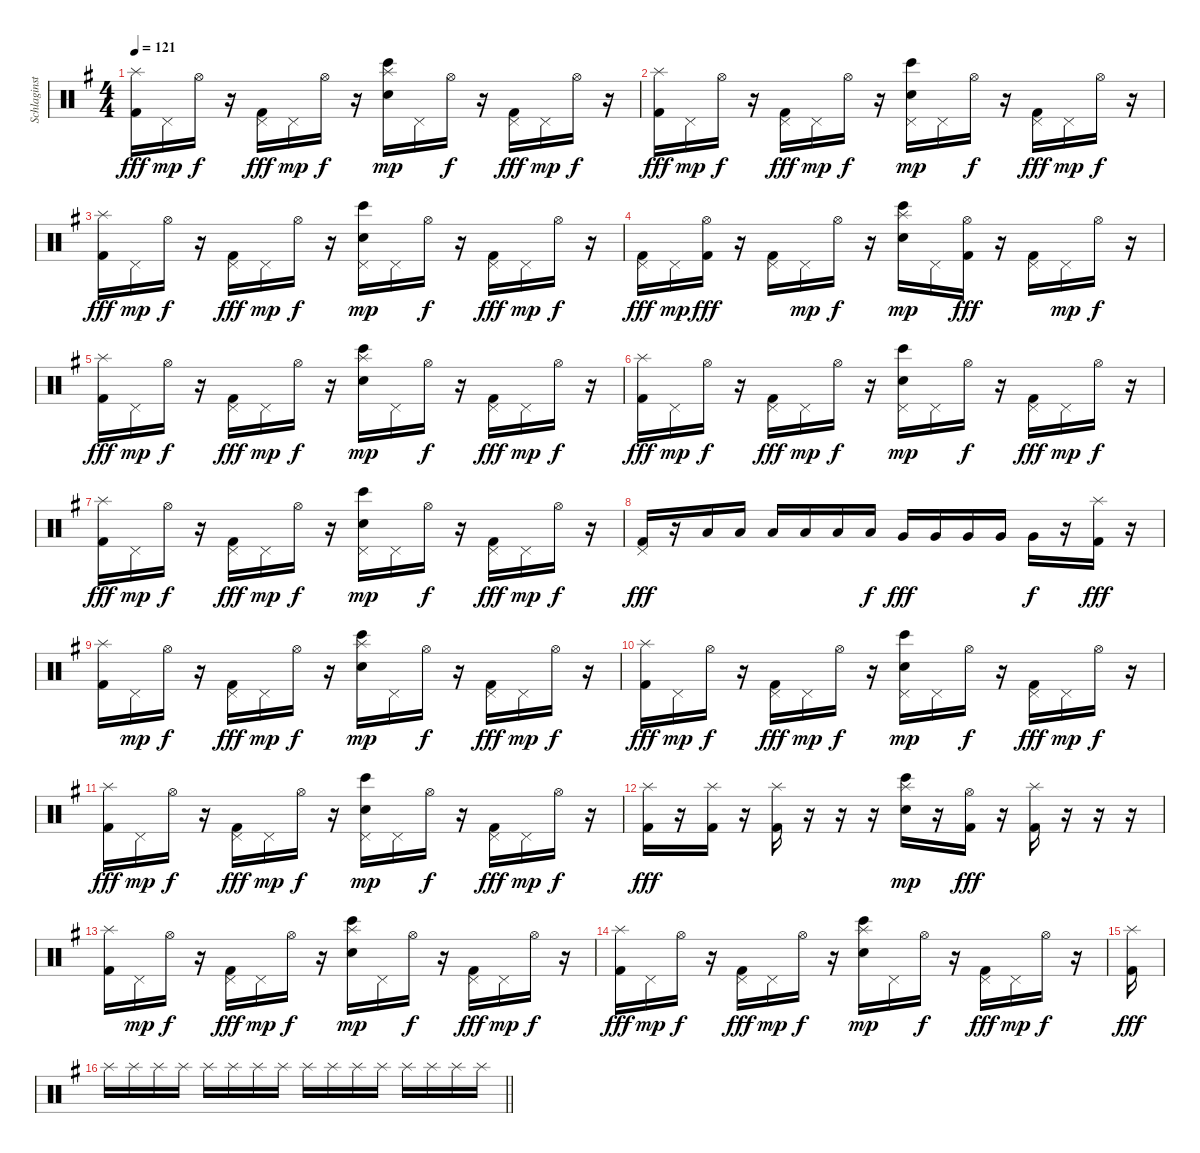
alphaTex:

\track ("Schlaginstrumente - Auswahl" "Schlaginst") {instrument percussion}
\staff {score}
\articulation defaults
\ts (4 4)
\tempo 121
\clef neutral
\ks g
("Splash (hit)" "Kick (hit) 2").16{dy fff} "Pedal Hi-Hat (hit)".16{dy mp} "Hi-Hat (open)".16{dy f} r.16 ("Pedal Hi-Hat (hit)" "Kick (hit) 2").16{dy fff} "Pedal Hi-Hat (hit)".16{dy mp} "Hi-Hat (open)".16{dy f} r.16 ("Bongo High (hit)" "Splash (hit)" "Electric Snare (hit)").16{dy mp} "Pedal Hi-Hat (hit)".16 "Hi-Hat (open)".16{dy f} r.16 ("Pedal Hi-Hat (hit)" "Kick (hit) 2").16{dy fff} "Pedal Hi-Hat (hit)".16{dy mp} "Hi-Hat (open)".16{dy f} r.16 |
("Splash (hit)" "Kick (hit) 2").16{dy fff} "Pedal Hi-Hat (hit)".16{dy mp} "Hi-Hat (open)".16{dy f} r.16 ("Pedal Hi-Hat (hit)" "Kick (hit) 2").16{dy fff} "Pedal Hi-Hat (hit)".16{dy mp} "Hi-Hat (open)".16{dy f} r.16 ("Bongo High (hit)" "Pedal Hi-Hat (hit)" "Electric Snare (hit)").16{dy mp} "Pedal Hi-Hat (hit)".16 "Hi-Hat (open)".16{dy f} r.16 ("Pedal Hi-Hat (hit)" "Kick (hit) 2").16{dy fff} "Pedal Hi-Hat (hit)".16{dy mp} "Hi-Hat (open)".16{dy f} r.16 |
("Splash (hit)" "Kick (hit) 2").16{dy fff} "Pedal Hi-Hat (hit)".16{dy mp} "Hi-Hat (open)".16{dy f} r.16 ("Pedal Hi-Hat (hit)" "Kick (hit) 2").16{dy fff} "Pedal Hi-Hat (hit)".16{dy mp} "Hi-Hat (open)".16{dy f} r.16 ("Bongo High (hit)" "Pedal Hi-Hat (hit)" "Electric Snare (hit)").16{dy mp} "Pedal Hi-Hat (hit)".16 "Hi-Hat (open)".16{dy f} r.16 ("Pedal Hi-Hat (hit)" "Kick (hit) 2").16{dy fff} "Pedal Hi-Hat (hit)".16{dy mp} "Hi-Hat (open)".16{dy f} r.16 |
("Pedal Hi-Hat (hit)" "Kick (hit) 2").16{dy fff} "Pedal Hi-Hat (hit)".16{dy mp} ("Hi-Hat (open)" "Kick (hit) 2").16{dy fff} r.16 ("Pedal Hi-Hat (hit)" "Kick (hit) 2").16 "Pedal Hi-Hat (hit)".16{dy mp} "Hi-Hat (open)".16{dy f} r.16 ("Bongo High (hit)" "Splash (hit)" "Electric Snare (hit)").16{dy mp} "Pedal Hi-Hat (hit)".16 ("Hi-Hat (open)" "Kick (hit) 2").16{dy fff} r.16 ("Pedal Hi-Hat (hit)" "Kick (hit) 2").16 "Pedal Hi-Hat (hit)".16{dy mp} "Hi-Hat (open)".16{dy f} r.16 |
("Splash (hit)" "Kick (hit) 2").16{dy fff} "Pedal Hi-Hat (hit)".16{dy mp} "Hi-Hat (open)".16{dy f} r.16 ("Pedal Hi-Hat (hit)" "Kick (hit) 2").16{dy fff} "Pedal Hi-Hat (hit)".16{dy mp} "Hi-Hat (open)".16{dy f} r.16 ("Bongo High (hit)" "Splash (hit)" "Electric Snare (hit)").16{dy mp} "Pedal Hi-Hat (hit)".16 "Hi-Hat (open)".16{dy f} r.16 ("Pedal Hi-Hat (hit)" "Kick (hit) 2").16{dy fff} "Pedal Hi-Hat (hit)".16{dy mp} "Hi-Hat (open)".16{dy f} r.16 |
("Splash (hit)" "Kick (hit) 2").16{dy fff} "Pedal Hi-Hat (hit)".16{dy mp} "Hi-Hat (open)".16{dy f} r.16 ("Pedal Hi-Hat (hit)" "Kick (hit) 2").16{dy fff} "Pedal Hi-Hat (hit)".16{dy mp} "Hi-Hat (open)".16{dy f} r.16 ("Bongo High (hit)" "Pedal Hi-Hat (hit)" "Electric Snare (hit)").16{dy mp} "Pedal Hi-Hat (hit)".16 "Hi-Hat (open)".16{dy f} r.16 ("Pedal Hi-Hat (hit)" "Kick (hit) 2").16{dy fff} "Pedal Hi-Hat (hit)".16{dy mp} "Hi-Hat (open)".16{dy f} r.16 |
("Splash (hit)" "Kick (hit) 2").16{dy fff} "Pedal Hi-Hat (hit)".16{dy mp} "Hi-Hat (open)".16{dy f} r.16 ("Pedal Hi-Hat (hit)" "Kick (hit) 2").16{dy fff} "Pedal Hi-Hat (hit)".16{dy mp} "Hi-Hat (open)".16{dy f} r.16 ("Bongo High (hit)" "Pedal Hi-Hat (hit)" "Electric Snare (hit)").16{dy mp} "Pedal Hi-Hat (hit)".16 "Hi-Hat (open)".16{dy f} r.16 ("Pedal Hi-Hat (hit)" "Kick (hit) 2").16{dy fff} "Pedal Hi-Hat (hit)".16{dy mp} "Hi-Hat (open)".16{dy f} r.16 |
("Pedal Hi-Hat (hit)" "Kick (hit) 2").16{dy fff} r.16 "Low Tom (hit)".16 "Low Tom (hit)".16 "Low Tom (hit)".16 "Low Tom (hit)".16 "Low Tom (hit)".16 "Low Tom (hit)".16{dy f} "Very Low Tom (hit)".16{dy fff} "Very Low Tom (hit)".16 "Very Low Tom (hit)".16 "Very Low Tom (hit)".16 "Very Low Tom (hit)".16{dy f} r.16 ("Splash (hit)" "Kick (hit) 2").16{dy fff} r.16 |
("Splash (hit)" "Kick (hit) 2").16 "Pedal Hi-Hat (hit)".16{dy mp} "Hi-Hat (open)".16{dy f} r.16 ("Pedal Hi-Hat (hit)" "Kick (hit) 2").16{dy fff} "Pedal Hi-Hat (hit)".16{dy mp} "Hi-Hat (open)".16{dy f} r.16 ("Bongo High (hit)" "Splash (hit)" "Electric Snare (hit)").16{dy mp} "Pedal Hi-Hat (hit)".16 "Hi-Hat (open)".16{dy f} r.16 ("Pedal Hi-Hat (hit)" "Kick (hit) 2").16{dy fff} "Pedal Hi-Hat (hit)".16{dy mp} "Hi-Hat (open)".16{dy f} r.16 |
("Splash (hit)" "Kick (hit) 2").16{dy fff} "Pedal Hi-Hat (hit)".16{dy mp} "Hi-Hat (open)".16{dy f} r.16 ("Pedal Hi-Hat (hit)" "Kick (hit) 2").16{dy fff} "Pedal Hi-Hat (hit)".16{dy mp} "Hi-Hat (open)".16{dy f} r.16 ("Bongo High (hit)" "Pedal Hi-Hat (hit)" "Electric Snare (hit)").16{dy mp} "Pedal Hi-Hat (hit)".16 "Hi-Hat (open)".16{dy f} r.16 ("Pedal Hi-Hat (hit)" "Kick (hit) 2").16{dy fff} "Pedal Hi-Hat (hit)".16{dy mp} "Hi-Hat (open)".16{dy f} r.16 |
("Splash (hit)" "Kick (hit) 2").16{dy fff} "Pedal Hi-Hat (hit)".16{dy mp} "Hi-Hat (open)".16{dy f} r.16 ("Pedal Hi-Hat (hit)" "Kick (hit) 2").16{dy fff} "Pedal Hi-Hat (hit)".16{dy mp} "Hi-Hat (open)".16{dy f} r.16 ("Bongo High (hit)" "Pedal Hi-Hat (hit)" "Electric Snare (hit)").16{dy mp} "Pedal Hi-Hat (hit)".16 "Hi-Hat (open)".16{dy f} r.16 ("Pedal Hi-Hat (hit)" "Kick (hit) 2").16{dy fff} "Pedal Hi-Hat (hit)".16{dy mp} "Hi-Hat (open)".16{dy f} r.16 |
("Splash (hit)" "Kick (hit) 2").16{dy fff} r.16 ("Splash (hit)" "Kick (hit) 2").16 r.16 ("Splash (hit)" "Kick (hit) 2").16 r.16 r.16 r.16 ("Bongo High (hit)" "Splash (hit)" "Electric Snare (hit)").16{dy mp} r.16 ("Hi-Hat (open)" "Kick (hit) 2").16{dy fff} r.16 ("Splash (hit)" "Kick (hit) 2").16 r.16 r.16 r.16 |
("Splash (hit)" "Kick (hit) 2").16 "Pedal Hi-Hat (hit)".16{dy mp} "Hi-Hat (open)".16{dy f} r.16 ("Pedal Hi-Hat (hit)" "Kick (hit) 2").16{dy fff} "Pedal Hi-Hat (hit)".16{dy mp} "Hi-Hat (open)".16{dy f} r.16 ("Bongo High (hit)" "Splash (hit)" "Electric Snare (hit)").16{dy mp} "Pedal Hi-Hat (hit)".16 "Hi-Hat (open)".16{dy f} r.16 ("Pedal Hi-Hat (hit)" "Kick (hit) 2").16{dy fff} "Pedal Hi-Hat (hit)".16{dy mp} "Hi-Hat (open)".16{dy f} r.16 |
("Splash (hit)" "Kick (hit) 2").16{dy fff} "Pedal Hi-Hat (hit)".16{dy mp} "Hi-Hat (open)".16{dy f} r.16 ("Pedal Hi-Hat (hit)" "Kick (hit) 2").16{dy fff} "Pedal Hi-Hat (hit)".16{dy mp} "Hi-Hat (open)".16{dy f} r.16 ("Bongo High (hit)" "Splash (hit)" "Electric Snare (hit)").16{dy mp} "Pedal Hi-Hat (hit)".16 "Hi-Hat (open)".16{dy f} r.16 ("Pedal Hi-Hat (hit)" "Kick (hit) 2").16{dy fff} "Pedal Hi-Hat (hit)".16{dy mp} "Hi-Hat (open)".16{dy f} r.16 |
("Splash (hit)" "Kick (hit) 2").16{dy fff} |
\barLineRight lightlight "Splash (hit)".16 "Splash (hit)".16 "Splash (hit)".16 "Splash (hit)".16 "Splash (hit)".16 "Splash (hit)".16 "Splash (hit)".16 "Splash (hit)".16 "Splash (hit)".16 "Splash (hit)".16 "Splash (hit)".16 "Splash (hit)".16 "Splash (hit)".16 "Splash (hit)".16 "Splash (hit)".16 "Splash (hit)".16
